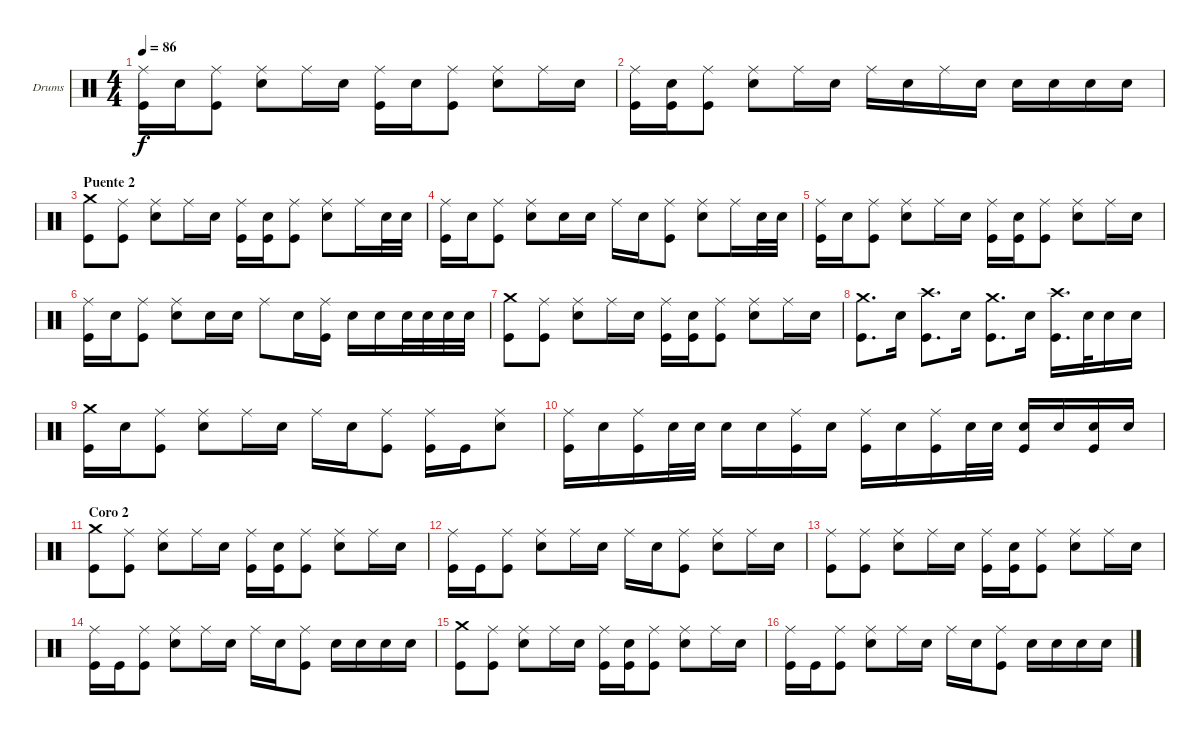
\defaultSystemsLayout 4
\bracketExtendMode groupsimilarinstruments
\firstSystemTrackNameOrientation horizontal
\otherSystemsTrackNameOrientation horizontal
\track ("Drumkit" "Drums") {instrument percussion}
\staff {score}
\articulation defaults
\ts (4 4)
\tempo 86
\clef neutral
\ks c
("Ride (middle)" "Kick (hit)").16{dy f} "Snare (hit) 2".16 ("Ride (middle)" "Kick (hit)").8 ("Ride (middle)" "Snare (hit) 2").8 "Ride (middle)".16 "Snare (hit) 2".16 ("Ride (middle)" "Kick (hit)").16 "Snare (hit) 2".16 ("Ride (middle)" "Kick (hit)").8 ("Ride (middle)" "Snare (hit) 2").8 "Ride (middle)".16 "Snare (hit) 2".16 |
("Ride (middle)" "Kick (hit)").16 ("Snare (hit) 2" "Kick (hit)").16 ("Ride (middle)" "Kick (hit)").8 ("Ride (middle)" "Snare (hit) 2").8 "Ride (middle)".16 "Snare (hit) 2".16 "Ride (middle)".16 "Snare (hit) 2".16 "Ride (middle)".16 "Snare (hit) 2".16 "Snare (hit) 2".16 "Snare (hit) 2".16 "Snare (hit) 2".16 "Snare (hit) 2".16 |
\section ("" "Puente 2")
("Crash medium (hit)" "Kick (hit)").8 ("Ride (middle)" "Kick (hit)").8 ("Ride (middle)" "Snare (hit) 2").8 "Ride (middle)".16 "Snare (hit) 2".16 ("Ride (middle)" "Kick (hit)").16 ("Snare (hit) 2" "Kick (hit)").16 ("Ride (middle)" "Kick (hit)").8 ("Ride (middle)" "Snare (hit) 2").8 "Ride (middle)".16 "Snare (hit) 2".32 "Snare (hit) 2".32 |
("Ride (middle)" "Kick (hit)").16 "Snare (hit) 2".16 ("Ride (middle)" "Kick (hit)").8 ("Ride (middle)" "Snare (hit) 2").8 "Snare (hit) 2".16 "Snare (hit) 2".16 "Ride (middle)".16 "Snare (hit) 2".16 ("Ride (middle)" "Kick (hit)").8 ("Ride (middle)" "Snare (hit) 2").8 "Ride (middle)".16 "Snare (hit) 2".32 "Snare (hit) 2".32 |
("Ride (middle)" "Kick (hit)").16 "Snare (hit) 2".16 ("Ride (middle)" "Kick (hit)").8 ("Ride (middle)" "Snare (hit) 2").8 "Ride (middle)".16 "Snare (hit) 2".16 ("Ride (middle)" "Kick (hit)").16 ("Snare (hit) 2" "Kick (hit)").16 ("Ride (middle)" "Kick (hit)").8 ("Ride (middle)" "Snare (hit) 2").8 "Ride (middle)".16 "Snare (hit) 2".16 |
("Ride (middle)" "Kick (hit)").16 "Snare (hit) 2".16 ("Ride (middle)" "Kick (hit)").8 ("Ride (middle)" "Snare (hit) 2").8 "Snare (hit) 2".16 "Snare (hit) 2".16 "Ride (middle)".8 "Snare (hit) 2".16 ("Ride (middle)" "Kick (hit)").16 "Snare (hit) 2".16 "Snare (hit) 2".16 "Snare (hit) 2".32 "Snare (hit) 2".32 "Snare (hit) 2".32 "Snare (hit) 2".32 |
("Crash medium (hit)" "Kick (hit)").8 ("Ride (middle)" "Kick (hit)").8 ("Ride (middle)" "Snare (hit) 2").8 "Ride (middle)".16 "Snare (hit) 2".16 ("Ride (middle)" "Kick (hit)").16 ("Snare (hit) 2" "Kick (hit)").16 ("Ride (middle)" "Kick (hit)").8 ("Ride (middle)" "Snare (hit) 2").8 "Ride (middle)".16 "Snare (hit) 2".16 |
("Crash medium (hit)" "Kick (hit)").8{d} "Snare (hit) 2".16 ("Crash high (hit)" "Kick (hit)").8{d} "Snare (hit) 2".16 ("Crash medium (hit)" "Kick (hit)").8{d} "Snare (hit) 2".16 ("Crash high (hit)" "Kick (hit)").16{d} "Snare (hit) 2".32 "Snare (hit) 2".16 "Snare (hit) 2".16 |
("Crash medium (hit)" "Kick (hit)").16 "Snare (hit) 2".16 ("Ride (middle)" "Kick (hit)").8 ("Ride (middle)" "Snare (hit) 2").8 "Ride (middle)".16 "Snare (hit) 2".16 "Ride (middle)".16 "Snare (hit) 2".16 ("Ride (middle)" "Kick (hit)").8 ("Ride (middle)" "Kick (hit)").16 "Kick (hit)".16 ("Ride (middle)" "Snare (hit) 2").8 |
("Ride (middle)" "Kick (hit)").16 "Snare (hit) 2".16 ("Ride (middle)" "Kick (hit)").16 "Snare (hit) 2".32 "Snare (hit) 2".32 "Snare (hit) 2".16 "Snare (hit) 2".16 ("Ride (middle)" "Kick (hit)").16 "Snare (hit) 2".16 ("Ride (middle)" "Kick (hit)").16 "Snare (hit) 2".16 ("Ride (middle)" "Kick (hit)").16 "Snare (hit) 2".32 "Snare (hit) 2".32 ("Snare (hit) 2" "Kick (hit)").16 "Snare (hit) 2".16 ("Snare (hit) 2" "Kick (hit)").16 "Snare (hit) 2".16 |
\section ("" "Coro 2")
("Crash medium (hit)" "Kick (hit)").8 ("Ride (middle)" "Kick (hit)").8 ("Ride (middle)" "Snare (hit) 2").8 "Ride (middle)".16 "Snare (hit) 2".16 ("Ride (middle)" "Kick (hit)").16 ("Snare (hit) 2" "Kick (hit)").16 ("Ride (middle)" "Kick (hit)").8 ("Ride (middle)" "Snare (hit) 2").8 "Ride (middle)".16 "Snare (hit) 2".16 |
("Ride (middle)" "Kick (hit)").16 "Kick (hit)".16 ("Ride (middle)" "Kick (hit)").8 ("Ride (middle)" "Snare (hit) 2").8 "Ride (middle)".16 "Snare (hit) 2".16 "Ride (middle)".16 "Snare (hit) 2".16 ("Ride (middle)" "Kick (hit)").8 ("Ride (middle)" "Snare (hit) 2").8 "Ride (middle)".16 "Snare (hit) 2".16 |
("Ride (middle)" "Kick (hit)").8 ("Ride (middle)" "Kick (hit)").8 ("Ride (middle)" "Snare (hit) 2").8 "Ride (middle)".16 "Snare (hit) 2".16 ("Ride (middle)" "Kick (hit)").16 ("Snare (hit) 2" "Kick (hit)").16 ("Ride (middle)" "Kick (hit)").8 ("Ride (middle)" "Snare (hit) 2").8 "Ride (middle)".16 "Snare (hit) 2".16 |
("Ride (middle)" "Kick (hit)").16 "Kick (hit)".16 ("Ride (middle)" "Kick (hit)").8 ("Ride (middle)" "Snare (hit) 2").8 "Ride (middle)".16 "Snare (hit) 2".16 "Ride (middle)".16 "Snare (hit) 2".16 ("Ride (middle)" "Kick (hit)").8 "Snare (hit) 2".16 "Snare (hit) 2".16 "Snare (hit) 2".16 "Snare (hit) 2".16 |
("Crash medium (hit)" "Kick (hit)").8 ("Ride (middle)" "Kick (hit)").8 ("Ride (middle)" "Snare (hit) 2").8 "Ride (middle)".16 "Snare (hit) 2".16 ("Ride (middle)" "Kick (hit)").16 ("Snare (hit) 2" "Kick (hit)").16 ("Ride (middle)" "Kick (hit)").8 ("Ride (middle)" "Snare (hit) 2").8 "Ride (middle)".16 "Snare (hit) 2".16 |
("Ride (middle)" "Kick (hit)").16 "Kick (hit)".16 ("Ride (middle)" "Kick (hit)").8 ("Ride (middle)" "Snare (hit) 2").8 "Ride (middle)".16 "Snare (hit) 2".16 "Ride (middle)".16 "Snare (hit) 2".16 ("Ride (middle)" "Kick (hit)").8 "Snare (hit) 2".16 "Snare (hit) 2".16 "Snare (hit) 2".16 "Snare (hit) 2".16
